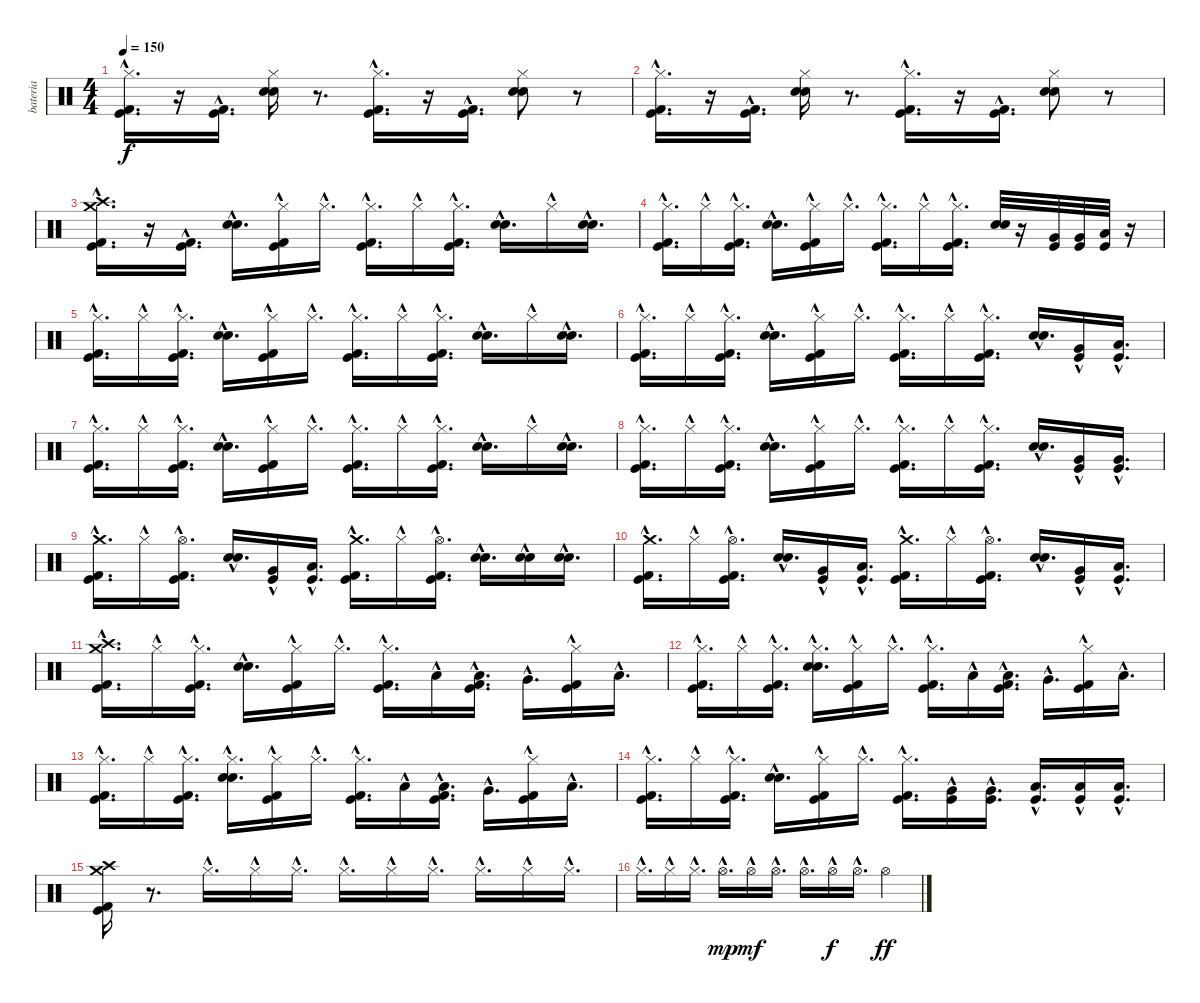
\track ("bateria" "bateria") {instrument percussion}
\staff {score}
\articulation defaults
\ts (4 4)
\tempo 150
\clef neutral
\ks c
("Hi-Hat (closed)"{hac} "Kick (hit)"{hac} "Kick (hit) 2"{hac}).16{d dy f} r.16 ("Kick (hit)"{hac} "Kick (hit) 2"{hac}).16{d} ("Hi-Hat (closed)" "Electric Snare (hit)" "Snare (hit) 2").16 r.8{d} ("Hi-Hat (closed)"{hac} "Kick (hit) 2"{hac} "Kick (hit)"{hac}).16{d} r.16 ("Kick (hit) 2"{hac} "Kick (hit)"{hac}).16{d} ("Hi-Hat (closed)" "Electric Snare (hit)" "Snare (hit) 2").8 r.8 |
("Hi-Hat (closed)"{hac} "Kick (hit)"{hac} "Kick (hit) 2"{hac}).16{d} r.16 ("Kick (hit)"{hac} "Kick (hit) 2"{hac}).16{d} ("Hi-Hat (closed)" "Electric Snare (hit)" "Snare (hit) 2").16 r.8{d} ("Hi-Hat (closed)"{hac} "Kick (hit) 2"{hac} "Kick (hit)"{hac}).16{d} r.16 ("Kick (hit) 2"{hac} "Kick (hit)"{hac}).16{d} ("Hi-Hat (closed)" "Electric Snare (hit)" "Snare (hit) 2").8 r.8 |
("Crash high (hit)"{hac} "Crash medium (hit)"{hac} "Kick (hit) 2"{hac} "Kick (hit)"{hac}).16{d} r.16 ("Kick (hit) 2"{hac} "Kick (hit)"{hac}).16{d} ("Electric Snare (hit)"{hac} "Snare (hit) 2"{hac}).16{d} ("Kick (hit) 2"{hac} "Kick (hit)"{hac} "Hi-Hat (closed)"{hac}).16 "Hi-Hat (closed)"{hac}.16{d} ("Kick (hit) 2"{hac} "Kick (hit)"{hac} "Hi-Hat (closed)"{hac}).16{d} "Hi-Hat (closed)"{hac}.16 ("Kick (hit) 2"{hac} "Kick (hit)"{hac} "Hi-Hat (closed)"{hac}).16{d} ("Electric Snare (hit)"{hac} "Snare (hit) 2"{hac}).16{d} "Hi-Hat (closed)"{hac}.16 ("Electric Snare (hit)"{hac} "Snare (hit) 2"{hac}).16{d} |
("Kick (hit) 2"{hac} "Kick (hit)"{hac} "Hi-Hat (closed)"{hac}).16{d} "Hi-Hat (closed)"{hac}.16 ("Kick (hit) 2"{hac} "Kick (hit)"{hac} "Hi-Hat (closed)"{hac}).16{d} ("Electric Snare (hit)"{hac} "Snare (hit) 2"{hac}).16{d} ("Kick (hit)"{hac} "Kick (hit) 2"{hac} "Hi-Hat (closed)"{hac}).16 "Hi-Hat (closed)"{hac}.16{d} ("Kick (hit) 2"{hac} "Kick (hit)"{hac} "Hi-Hat (closed)"{hac}).16{d} "Hi-Hat (closed)"{hac}.16 ("Kick (hit) 2"{hac} "Kick (hit)"{hac} "Hi-Hat (closed)"{hac}).16{d} ("Electric Snare (hit)" "Snare (hit) 2").32 r.16 ("Kick (hit)" "Very Low Tom (hit)").32 ("Kick (hit)" "Very Low Tom (hit)").32 ("Kick (hit)" "Low Floor Tom (hit)").32 r.16 |
("Kick (hit) 2"{hac} "Kick (hit)"{hac} "Hi-Hat (closed)"{hac}).16{d} "Hi-Hat (closed)"{hac}.16 ("Kick (hit) 2"{hac} "Kick (hit)"{hac} "Hi-Hat (closed)"{hac}).16{d} ("Snare (hit) 2"{hac} "Electric Snare (hit)"{hac}).16{d} ("Kick (hit)"{hac} "Kick (hit) 2"{hac} "Hi-Hat (closed)"{hac}).16 "Hi-Hat (closed)"{hac}.16{d} ("Kick (hit) 2"{hac} "Kick (hit)"{hac} "Hi-Hat (closed)"{hac}).16{d} "Hi-Hat (closed)"{hac}.16 ("Kick (hit) 2"{hac} "Kick (hit)"{hac} "Hi-Hat (closed)"{hac}).16{d} ("Electric Snare (hit)"{hac} "Snare (hit) 2"{hac}).16{d} "Hi-Hat (closed)"{hac}.16 ("Electric Snare (hit)"{hac} "Snare (hit) 2"{hac}).16{d} |
("Kick (hit) 2"{hac} "Kick (hit)"{hac} "Hi-Hat (closed)"{hac}).16{d} "Hi-Hat (closed)"{hac}.16 ("Kick (hit) 2"{hac} "Kick (hit)"{hac} "Hi-Hat (closed)"{hac}).16{d} ("Snare (hit) 2"{hac} "Electric Snare (hit)"{hac}).16{d} ("Kick (hit)"{hac} "Kick (hit) 2"{hac} "Hi-Hat (closed)"{hac}).16 "Hi-Hat (closed)"{hac}.16{d} ("Kick (hit) 2"{hac} "Kick (hit)"{hac} "Hi-Hat (closed)"{hac}).16{d} "Hi-Hat (closed)"{hac}.16 ("Kick (hit) 2"{hac} "Kick (hit)"{hac} "Hi-Hat (closed)"{hac}).16{d} ("Electric Snare (hit)"{hac} "Snare (hit) 2"{hac}).16{d} ("Kick (hit)"{hac} "Very Low Tom (hit)"{hac}).16 ("Kick (hit)"{hac} "Low Floor Tom (hit)"{hac}).16{d} |
("Kick (hit) 2"{hac} "Kick (hit)"{hac} "Hi-Hat (closed)"{hac}).16{d} "Hi-Hat (closed)"{hac}.16 ("Kick (hit) 2"{hac} "Kick (hit)"{hac} "Hi-Hat (closed)"{hac}).16{d} ("Snare (hit) 2"{hac} "Electric Snare (hit)"{hac}).16{d} ("Kick (hit)"{hac} "Kick (hit) 2"{hac} "Hi-Hat (closed)"{hac}).16 "Hi-Hat (closed)"{hac}.16{d} ("Kick (hit) 2"{hac} "Kick (hit)"{hac} "Hi-Hat (closed)"{hac}).16{d} "Hi-Hat (closed)"{hac}.16 ("Kick (hit) 2"{hac} "Kick (hit)"{hac} "Hi-Hat (closed)"{hac}).16{d} ("Electric Snare (hit)"{hac} "Snare (hit) 2"{hac}).16{d} "Hi-Hat (closed)"{hac}.16 ("Electric Snare (hit)"{hac} "Snare (hit) 2"{hac}).16{d} |
("Kick (hit) 2"{hac} "Kick (hit)"{hac} "Hi-Hat (closed)"{hac}).16{d} "Hi-Hat (closed)"{hac}.16 ("Kick (hit) 2"{hac} "Kick (hit)"{hac} "Hi-Hat (closed)"{hac}).16{d} ("Snare (hit) 2"{hac} "Electric Snare (hit)"{hac}).16{d} ("Kick (hit)"{hac} "Kick (hit) 2"{hac} "Hi-Hat (closed)"{hac}).16 "Hi-Hat (closed)"{hac}.16{d} ("Kick (hit) 2"{hac} "Kick (hit)"{hac} "Hi-Hat (closed)"{hac}).16{d} "Hi-Hat (closed)"{hac}.16 ("Kick (hit) 2"{hac} "Kick (hit)"{hac} "Hi-Hat (closed)"{hac}).16{d} ("Electric Snare (hit)"{hac} "Snare (hit) 2"{hac}).16{d} ("Kick (hit)"{hac} "Very Low Tom (hit)"{hac}).16 ("Kick (hit)"{hac} "Very Low Tom (hit)"{hac}).16{d} |
("Crash medium (hit)"{hac} "Kick (hit) 2"{hac} "Kick (hit)"{hac}).16{d} "Hi-Hat (closed)"{hac}.16 ("Hi-Hat (open)"{hac} "Kick (hit) 2"{hac} "Kick (hit)"{hac}).16{d} ("Snare (hit) 2"{hac} "Electric Snare (hit)"{hac}).16{d} ("Very Low Tom (hit)"{hac} "Kick (hit)"{hac}).16 ("Low Floor Tom (hit)"{hac} "Kick (hit)"{hac}).16{d} ("Crash medium (hit)"{hac} "Kick (hit) 2"{hac} "Kick (hit)"{hac}).16{d} "Hi-Hat (closed)"{hac}.16 ("Hi-Hat (open)"{hac} "Kick (hit) 2"{hac} "Kick (hit)"{hac}).16{d} ("Electric Snare (hit)"{hac} "Snare (hit) 2"{hac}).16{d} ("Electric Snare (hit)"{hac} "Snare (hit) 2"{hac}).16 ("Electric Snare (hit)"{hac} "Snare (hit) 2"{hac}).16{d} |
("Crash medium (hit)"{hac} "Kick (hit) 2"{hac} "Kick (hit)"{hac}).16{d} "Hi-Hat (closed)"{hac}.16 ("Hi-Hat (open)"{hac} "Kick (hit) 2"{hac} "Kick (hit)"{hac}).16{d} ("Snare (hit) 2"{hac} "Electric Snare (hit)"{hac}).16{d} ("Very Low Tom (hit)"{hac} "Kick (hit)"{hac}).16 ("Low Floor Tom (hit)"{hac} "Kick (hit)"{hac}).16{d} ("Crash medium (hit)"{hac} "Kick (hit) 2"{hac} "Kick (hit)"{hac}).16{d} "Hi-Hat (closed)"{hac}.16 ("Hi-Hat (open)"{hac} "Kick (hit) 2"{hac} "Kick (hit)"{hac}).16{d} ("Snare (hit) 2"{hac} "Electric Snare (hit)"{hac}).16{d} ("Very Low Tom (hit)"{hac} "Kick (hit)"{hac}).16 ("Low Floor Tom (hit)"{hac} "Kick (hit)"{hac}).16{d} |
("Crash high (hit)"{hac} "Crash medium (hit)"{hac} "Kick (hit) 2"{hac} "Kick (hit)"{hac}).16{d} "Hi-Hat (closed)"{hac}.16 ("Kick (hit) 2"{hac} "Kick (hit)"{hac} "Hi-Hat (closed)"{hac}).16{d} ("Snare (hit) 2"{hac} "Electric Snare (hit)"{hac}).16{d} ("Kick (hit) 2"{hac} "Kick (hit)"{hac} "Hi-Hat (closed)"{hac}).16 "Hi-Hat (closed)"{hac}.16{d} ("Kick (hit) 2"{hac} "Kick (hit)"{hac} "Hi-Hat (closed)"{hac}).16{d} "Low Tom (hit)"{hac}.16 ("Low Tom (hit)"{hac} "Kick (hit) 2"{hac} "Kick (hit)"{hac}).16{d} "Very Low Tom (hit)"{hac}.16{d} ("Kick (hit) 2"{hac} "Kick (hit)"{hac} "Hi-Hat (closed)"{hac}).16 "Low Floor Tom (hit)"{hac}.16{d} |
("Kick (hit) 2"{hac} "Kick (hit)"{hac} "Hi-Hat (closed)"{hac}).16{d} "Hi-Hat (closed)"{hac}.16 ("Kick (hit) 2"{hac} "Kick (hit)"{hac} "Hi-Hat (closed)"{hac}).16{d} ("Electric Snare (hit)"{hac} "Snare (hit) 2"{hac} "Hi-Hat (closed)"{hac}).16{d} ("Kick (hit) 2"{hac} "Kick (hit)"{hac} "Hi-Hat (closed)"{hac}).16 "Hi-Hat (closed)"{hac}.16{d} ("Kick (hit) 2"{hac} "Kick (hit)"{hac} "Hi-Hat (closed)"{hac}).16{d} "Low Tom (hit)"{hac}.16 ("Low Tom (hit)"{hac} "Kick (hit) 2"{hac} "Kick (hit)"{hac}).16{d} "Very Low Tom (hit)"{hac}.16{d} ("Kick (hit) 2"{hac} "Kick (hit)"{hac} "Hi-Hat (closed)"{hac}).16 "Low Floor Tom (hit)"{hac}.16{d} |
("Kick (hit) 2"{hac} "Kick (hit)"{hac} "Hi-Hat (closed)"{hac}).16{d} "Hi-Hat (closed)"{hac}.16 ("Kick (hit) 2"{hac} "Kick (hit)"{hac} "Hi-Hat (closed)"{hac}).16{d} ("Electric Snare (hit)"{hac} "Snare (hit) 2"{hac} "Hi-Hat (closed)"{hac}).16{d} ("Kick (hit) 2"{hac} "Kick (hit)"{hac} "Hi-Hat (closed)"{hac}).16 "Hi-Hat (closed)"{hac}.16{d} ("Kick (hit) 2"{hac} "Kick (hit)"{hac} "Hi-Hat (closed)"{hac}).16{d} "Low Tom (hit)"{hac}.16 ("Low Tom (hit)"{hac} "Kick (hit) 2"{hac} "Kick (hit)"{hac}).16{d} "Very Low Tom (hit)"{hac}.16{d} ("Kick (hit) 2"{hac} "Kick (hit)"{hac} "Hi-Hat (closed)"{hac}).16 "Low Floor Tom (hit)"{hac}.16{d} |
("Kick (hit) 2"{hac} "Kick (hit)"{hac} "Hi-Hat (closed)"{hac}).16{d} "Hi-Hat (closed)"{hac}.16 ("Kick (hit) 2"{hac} "Kick (hit)"{hac} "Hi-Hat (closed)"{hac}).16{d} ("Electric Snare (hit)"{hac} "Snare (hit) 2"{hac}).16{d} ("Kick (hit) 2"{hac} "Kick (hit)"{hac} "Hi-Hat (closed)"{hac}).16 "Hi-Hat (closed)"{hac}.16{d} ("Kick (hit) 2"{hac} "Kick (hit)"{hac} "Hi-Hat (closed)"{hac}).16{d} ("Kick (hit)"{hac} "Very Low Tom (hit)"{hac}).16 ("Very Low Tom (hit)"{hac} "Kick (hit)"{hac}).16{d} ("Kick (hit)"{hac} "Low Floor Tom (hit)"{hac}).16{d} ("Low Floor Tom (hit)"{hac} "Kick (hit)"{hac}).16 ("Kick (hit)"{hac} "Low Floor Tom (hit)"{hac}).16{d} |
("Crash high (hit)" "Crash medium (hit)" "Kick (hit) 2" "Kick (hit)").16 r.8{d} "Hi-Hat (closed)"{hac}.16{d} "Hi-Hat (closed)"{hac}.16 "Hi-Hat (closed)"{hac}.16{d} "Hi-Hat (closed)"{hac}.16{d} "Hi-Hat (closed)"{hac}.16 "Hi-Hat (closed)"{hac}.16{d} "Hi-Hat (closed)"{hac}.16{d} "Hi-Hat (closed)"{hac}.16 "Hi-Hat (closed)"{hac}.16{d} |
"Hi-Hat (closed)"{hac}.16{d} "Hi-Hat (closed)"{hac}.16 "Hi-Hat (closed)"{hac}.16{d} "Hi-Hat (open)"{hac}.16{d dy mp} "Hi-Hat (open)"{hac}.16{dy mf} "Hi-Hat (open)"{hac}.16{d} "Hi-Hat (open)"{hac}.16{d} "Hi-Hat (open)"{hac}.16{dy f} "Hi-Hat (open)"{hac}.16{d} "Hi-Hat (open)".4{dy ff}
